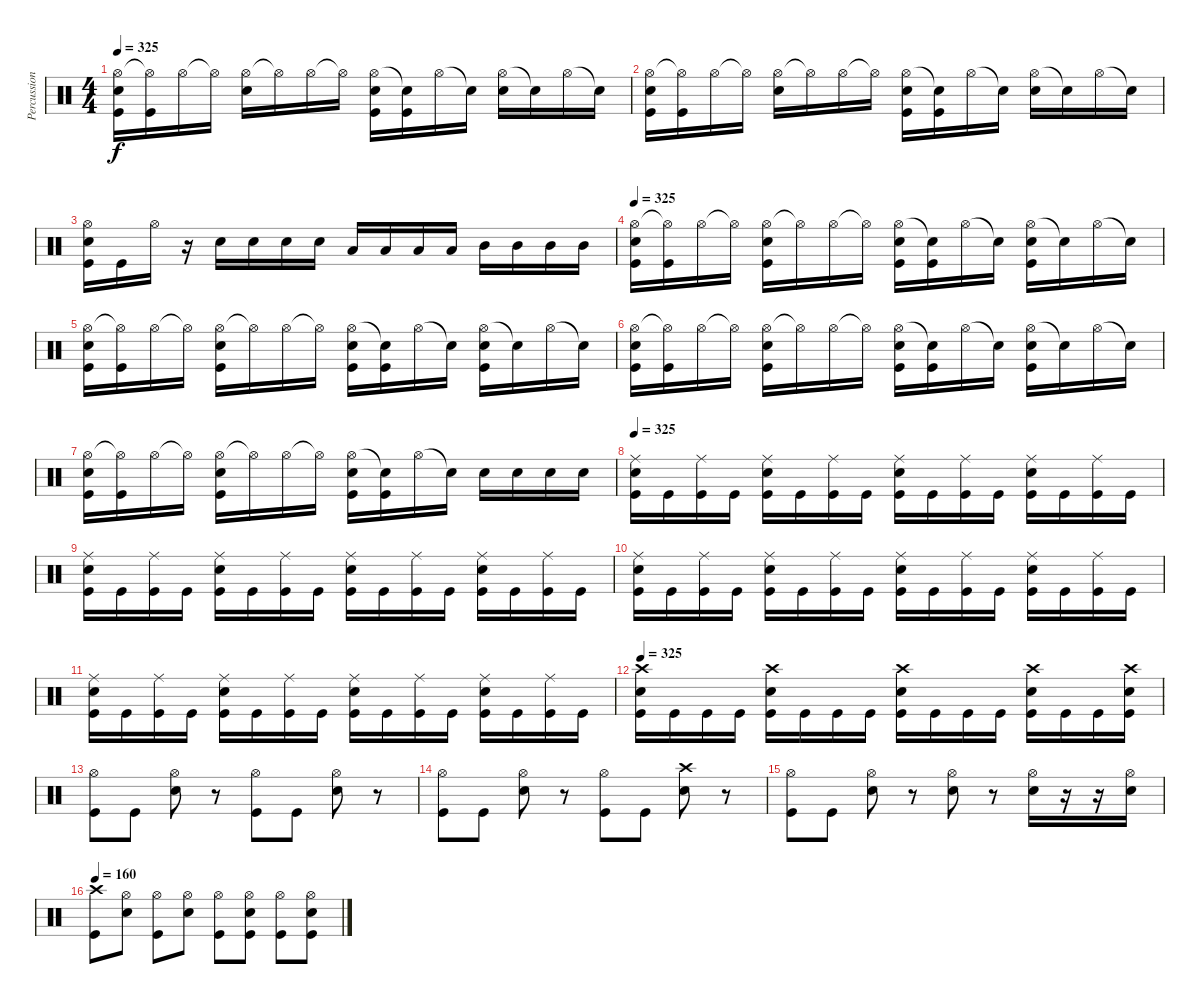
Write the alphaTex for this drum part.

\track ("Percussion" "Percussion") {instrument percussion}
\staff {score}
\articulation defaults
\ts (4 4)
\tempo 325
\clef neutral
\ks c
("Hi-Hat (open)" "Snare (hit) 2" "Kick (hit)").16{dy f} ("Hi-Hat (open)"{t} "Kick (hit)").16 "Hi-Hat (open)".16 "Hi-Hat (open)"{t}.16 ("Hi-Hat (open)" "Snare (hit) 2").16 "Hi-Hat (open)"{t}.16 "Hi-Hat (open)".16 "Hi-Hat (open)"{t}.16 ("Hi-Hat (open)" "Snare (hit) 2" "Kick (hit)").16 ("Snare (hit)"{t} "Kick (hit)").16 "Hi-Hat (open)".16 "Snare (hit)"{t}.16 ("Hi-Hat (open)" "Snare (hit) 2").16 "Snare (hit)"{t}.16 "Hi-Hat (open)".16 "Snare (hit)"{t}.16 |
("Hi-Hat (open)" "Snare (hit) 2" "Kick (hit)").16 ("Hi-Hat (open)"{t} "Kick (hit)").16 "Hi-Hat (open)".16 "Hi-Hat (open)"{t}.16 ("Hi-Hat (open)" "Snare (hit) 2").16 "Hi-Hat (open)"{t}.16 "Hi-Hat (open)".16 "Hi-Hat (open)"{t}.16 ("Hi-Hat (open)" "Snare (hit) 2" "Kick (hit)").16 ("Snare (hit)"{t} "Kick (hit)").16 "Hi-Hat (open)".16 "Snare (hit)"{t}.16 ("Hi-Hat (open)" "Snare (hit) 2").16 "Snare (hit)"{t}.16 "Hi-Hat (open)".16 "Snare (hit)"{t}.16 |
("Hi-Hat (open)" "Snare (hit) 2" "Kick (hit)").16 "Kick (hit)".16 "Hi-Hat (open)".16 r.16 "Snare (hit) 2".16 "Snare (hit) 2".16 "Snare (hit) 2".16 "Snare (hit) 2".16 "Low Tom (hit)".16 "Low Tom (hit)".16 "Low Tom (hit)".16 "Low Tom (hit)".16 "Mid Tom (hit)".16 "Mid Tom (hit)".16 "Mid Tom (hit)".16 "Mid Tom (hit)".16 |
\tempo 325
("Hi-Hat (open)" "Snare (hit) 2" "Kick (hit)").16 ("Hi-Hat (open)"{t} "Kick (hit)").16 "Hi-Hat (open)".16 "Hi-Hat (open)"{t}.16 ("Hi-Hat (open)" "Snare (hit) 2" "Kick (hit)").16 "Hi-Hat (open)"{t}.16 "Hi-Hat (open)".16 "Hi-Hat (open)"{t}.16 ("Hi-Hat (open)" "Snare (hit) 2" "Kick (hit)").16 ("Snare (hit)"{t} "Kick (hit)").16 "Hi-Hat (open)".16 "Snare (hit)"{t}.16 ("Hi-Hat (open)" "Snare (hit) 2" "Kick (hit)").16 "Snare (hit)"{t}.16 "Hi-Hat (open)".16 "Snare (hit)"{t}.16 |
("Hi-Hat (open)" "Snare (hit) 2" "Kick (hit)").16 ("Hi-Hat (open)"{t} "Kick (hit)").16 "Hi-Hat (open)".16 "Hi-Hat (open)"{t}.16 ("Hi-Hat (open)" "Snare (hit) 2" "Kick (hit)").16 "Hi-Hat (open)"{t}.16 "Hi-Hat (open)".16 "Hi-Hat (open)"{t}.16 ("Hi-Hat (open)" "Snare (hit) 2" "Kick (hit)").16 ("Snare (hit)"{t} "Kick (hit)").16 "Hi-Hat (open)".16 "Snare (hit)"{t}.16 ("Hi-Hat (open)" "Snare (hit) 2" "Kick (hit)").16 "Snare (hit)"{t}.16 "Hi-Hat (open)".16 "Snare (hit)"{t}.16 |
("Hi-Hat (open)" "Snare (hit) 2" "Kick (hit)").16 ("Hi-Hat (open)"{t} "Kick (hit)").16 "Hi-Hat (open)".16 "Hi-Hat (open)"{t}.16 ("Hi-Hat (open)" "Snare (hit) 2" "Kick (hit)").16 "Hi-Hat (open)"{t}.16 "Hi-Hat (open)".16 "Hi-Hat (open)"{t}.16 ("Hi-Hat (open)" "Snare (hit) 2" "Kick (hit)").16 ("Snare (hit)"{t} "Kick (hit)").16 "Hi-Hat (open)".16 "Snare (hit)"{t}.16 ("Hi-Hat (open)" "Snare (hit) 2" "Kick (hit)").16 "Snare (hit)"{t}.16 "Hi-Hat (open)".16 "Snare (hit)"{t}.16 |
("Hi-Hat (open)" "Snare (hit) 2" "Kick (hit)").16 ("Hi-Hat (open)"{t} "Kick (hit)").16 "Hi-Hat (open)".16 "Hi-Hat (open)"{t}.16 ("Hi-Hat (open)" "Snare (hit) 2" "Kick (hit)").16 "Hi-Hat (open)"{t}.16 "Hi-Hat (open)".16 "Hi-Hat (open)"{t}.16 ("Hi-Hat (open)" "Snare (hit) 2" "Kick (hit)").16 ("Snare (hit)"{t} "Kick (hit)").16 "Hi-Hat (open)".16 "Snare (hit)"{t}.16 "Snare (hit) 2".16 "Snare (hit) 2".16 "Snare (hit) 2".16 "Snare (hit) 2".16 |
\tempo 325
("Ride (middle)" "Snare (hit) 2" "Kick (hit)").16 "Kick (hit)".16 ("Ride (middle)" "Kick (hit)").16 "Kick (hit)".16 ("Ride (middle)" "Snare (hit) 2" "Kick (hit)").16 "Kick (hit)".16 ("Ride (middle)" "Kick (hit)").16 "Kick (hit)".16 ("Ride (middle)" "Snare (hit) 2" "Kick (hit)").16 "Kick (hit)".16 ("Ride (middle)" "Kick (hit)").16 "Kick (hit)".16 ("Ride (middle)" "Snare (hit) 2" "Kick (hit)").16 "Kick (hit)".16 ("Ride (middle)" "Kick (hit)").16 "Kick (hit)".16 |
("Ride (middle)" "Snare (hit) 2" "Kick (hit)").16 "Kick (hit)".16 ("Ride (middle)" "Kick (hit)").16 "Kick (hit)".16 ("Ride (middle)" "Snare (hit) 2" "Kick (hit)").16 "Kick (hit)".16 ("Ride (middle)" "Kick (hit)").16 "Kick (hit)".16 ("Ride (middle)" "Snare (hit) 2" "Kick (hit)").16 "Kick (hit)".16 ("Ride (middle)" "Kick (hit)").16 "Kick (hit)".16 ("Ride (middle)" "Snare (hit) 2" "Kick (hit)").16 "Kick (hit)".16 ("Ride (middle)" "Kick (hit)").16 "Kick (hit)".16 |
("Ride (middle)" "Snare (hit) 2" "Kick (hit)").16 "Kick (hit)".16 ("Ride (middle)" "Kick (hit)").16 "Kick (hit)".16 ("Ride (middle)" "Snare (hit) 2" "Kick (hit)").16 "Kick (hit)".16 ("Ride (middle)" "Kick (hit)").16 "Kick (hit)".16 ("Ride (middle)" "Snare (hit) 2" "Kick (hit)").16 "Kick (hit)".16 ("Ride (middle)" "Kick (hit)").16 "Kick (hit)".16 ("Ride (middle)" "Snare (hit) 2" "Kick (hit)").16 "Kick (hit)".16 ("Ride (middle)" "Kick (hit)").16 "Kick (hit)".16 |
("Ride (middle)" "Snare (hit) 2" "Kick (hit)").16 "Kick (hit)".16 ("Ride (middle)" "Kick (hit)").16 "Kick (hit)".16 ("Ride (middle)" "Snare (hit) 2" "Kick (hit)").16 "Kick (hit)".16 ("Ride (middle)" "Kick (hit)").16 "Kick (hit)".16 ("Ride (middle)" "Snare (hit) 2" "Kick (hit)").16 "Kick (hit)".16 ("Ride (middle)" "Kick (hit)").16 "Kick (hit)".16 ("Ride (middle)" "Snare (hit) 2" "Kick (hit)").16 "Kick (hit)".16 ("Ride (middle)" "Kick (hit)").16 "Kick (hit)".16 |
\tempo 325
("Crash high (hit)" "Snare (hit) 2" "Kick (hit)").16 "Kick (hit)".16 "Kick (hit)".16 "Kick (hit)".16 ("Crash high (hit)" "Snare (hit) 2" "Kick (hit)").16 "Kick (hit)".16 "Kick (hit)".16 "Kick (hit)".16 ("Crash high (hit)" "Snare (hit) 2" "Kick (hit)").16 "Kick (hit)".16 "Kick (hit)".16 "Kick (hit)".16 ("Crash high (hit)" "Snare (hit) 2" "Kick (hit)").16 "Kick (hit)".16 "Kick (hit)".16 ("Crash high (hit)" "Snare (hit) 2" "Kick (hit)").16 |
("Hi-Hat (open)" "Kick (hit)").8 "Kick (hit)".8 ("Hi-Hat (open)" "Snare (hit) 2").8 r.8 ("Hi-Hat (open)" "Kick (hit)").8 "Kick (hit)".8 ("Hi-Hat (open)" "Snare (hit) 2").8 r.8 |
("Hi-Hat (open)" "Kick (hit)").8 "Kick (hit)".8 ("Hi-Hat (open)" "Snare (hit) 2").8 r.8 ("Hi-Hat (open)" "Kick (hit)").8 "Kick (hit)".8 ("Crash high (hit)" "Snare (hit) 2").8 r.8 |
("Hi-Hat (open)" "Kick (hit)").8 "Kick (hit)".8 ("Hi-Hat (open)" "Snare (hit) 2").8 r.8 ("Hi-Hat (open)" "Snare (hit) 2").8 r.8 ("Hi-Hat (open)" "Snare (hit) 2").16 r.16 r.16 ("Hi-Hat (open)" "Snare (hit) 2").16 |
\tempo 160
("Crash high (hit)" "Kick (hit)").8 ("Hi-Hat (open)" "Snare (hit) 2").8 ("Hi-Hat (open)" "Kick (hit)").8 ("Hi-Hat (open)" "Snare (hit) 2").8 ("Hi-Hat (open)" "Kick (hit)").8 ("Hi-Hat (open)" "Snare (hit) 2" "Kick (hit)").8 ("Hi-Hat (open)" "Kick (hit)").8 ("Hi-Hat (open)" "Snare (hit) 2" "Kick (hit)").8
